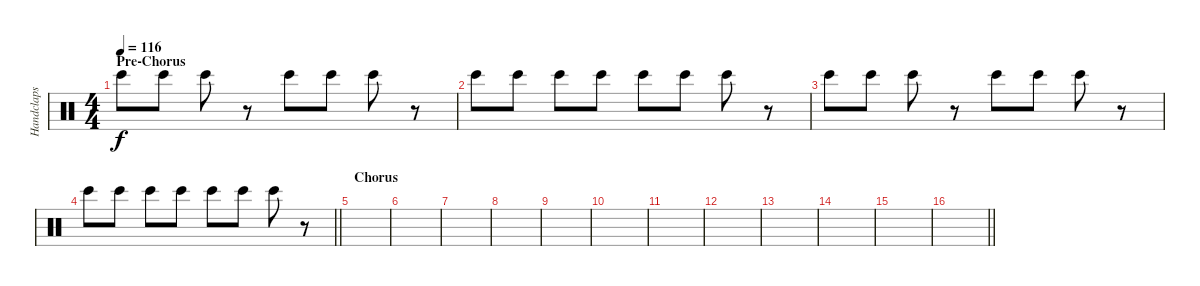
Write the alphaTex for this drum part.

\track ("Handclaps" "Handclaps") {instrument percussion}
\staff {score}
\articulation defaults
\ts (4 4)
\section ("" "Pre-Chorus")
\tempo 116
\clef neutral
\ks c "Bongo High (hit)".8{dy f} "Bongo High (hit)".8 "Bongo High (hit)".8
r.8 "Bongo High (hit)".8 "Bongo High (hit)".8 "Bongo High (hit)".8 r.8 |
"Bongo High (hit)".8 "Bongo High (hit)".8 "Bongo High (hit)".8 "Bongo High (hit)".8 "Bongo High (hit)".8 "Bongo High (hit)".8 "Bongo High (hit)".8 r.8 |
"Bongo High (hit)".8 "Bongo High (hit)".8 "Bongo High (hit)".8 r.8 "Bongo High (hit)".8 "Bongo High (hit)".8 "Bongo High (hit)".8 r.8 |
\barLineRight lightlight "Bongo High (hit)".8 "Bongo High (hit)".8 "Bongo High (hit)".8 "Bongo High (hit)".8 "Bongo High (hit)".8 "Bongo High (hit)".8 "Bongo High (hit)".8
r.8 |
\section ("" "Chorus")
|
|
|
|
|
|
|
|
|
|
|
\barLineRight lightlight
